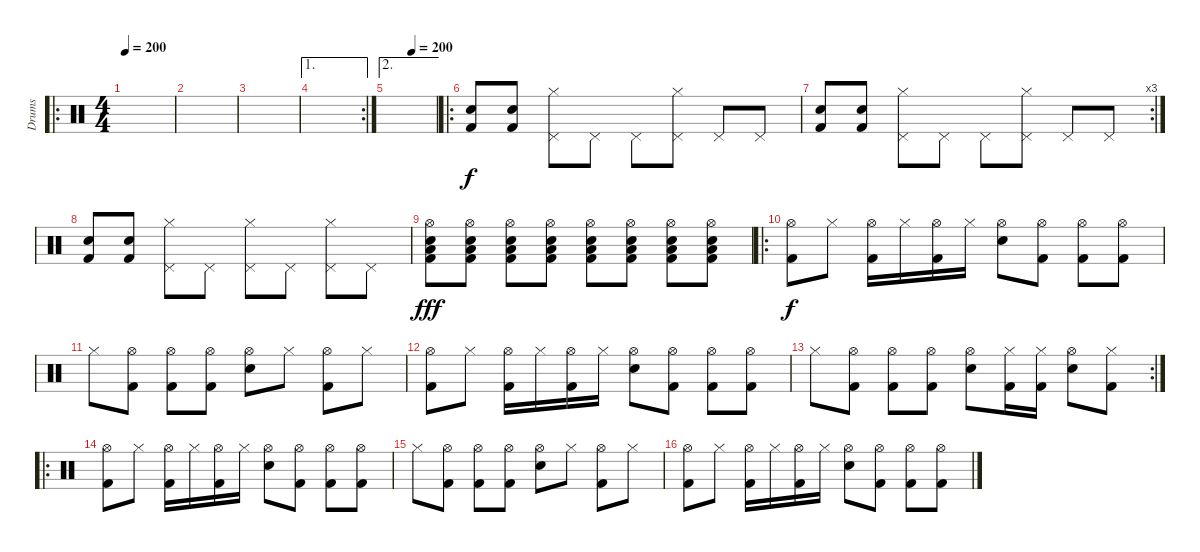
\track ("Drums" "Drums") {instrument percussion}
\staff {score}
\articulation defaults
\ro
\ts (4 4)
\tempo 200
\tempo 140
\tempo 200
\clef neutral
\ks c
|
|
|
\ae 1
\rc 2
|
\ae 2
\tempo (200 0.5)
|
\ro
("Electric Snare (hit)" "Kick (hit) 2").8 ("Electric Snare (hit)" "Kick (hit) 2").8 ("Hi-Hat (closed)" "Pedal Hi-Hat (hit)").8 "Pedal Hi-Hat (hit)".8 "Pedal Hi-Hat (hit)".8 ("Hi-Hat (closed)" "Pedal Hi-Hat (hit)").8 "Pedal Hi-Hat (hit)".8 "Pedal Hi-Hat (hit)".8 |
\rc 3
("Electric Snare (hit)" "Kick (hit) 2").8 ("Electric Snare (hit)" "Kick (hit) 2").8 ("Hi-Hat (closed)" "Pedal Hi-Hat (hit)").8 "Pedal Hi-Hat (hit)".8 "Pedal Hi-Hat (hit)".8 ("Hi-Hat (closed)" "Pedal Hi-Hat (hit)").8 "Pedal Hi-Hat (hit)".8 "Pedal Hi-Hat (hit)".8 |
("Electric Snare (hit)" "Kick (hit) 2").8 ("Electric Snare (hit)" "Kick (hit) 2").8 ("Hi-Hat (closed)" "Pedal Hi-Hat (hit)").8 "Pedal Hi-Hat (hit)".8 ("Hi-Hat (closed)" "Pedal Hi-Hat (hit)").8 "Pedal Hi-Hat (hit)".8 ("Hi-Hat (closed)" "Pedal Hi-Hat (hit)").8 "Pedal Hi-Hat (hit)".8 |
("Hi-Hat (open)" "Low Floor Tom (hit)" "Electric Snare (hit)" "Kick (hit) 2").8{dy fff} ("Hi-Hat (open)" "Low Floor Tom (hit)" "Electric Snare (hit)" "Kick (hit) 2").8 ("Hi-Hat (open)" "Low Floor Tom (hit)" "Electric Snare (hit)" "Kick (hit) 2").8 ("Hi-Hat (open)" "Low Floor Tom (hit)" "Electric Snare (hit)" "Kick (hit) 2").8 ("Hi-Hat (open)" "Low Floor Tom (hit)" "Electric Snare (hit)" "Kick (hit) 2").8 ("Hi-Hat (open)" "Low Floor Tom (hit)" "Electric Snare (hit)" "Kick (hit) 2").8 ("Hi-Hat (open)" "Low Floor Tom (hit)" "Electric Snare (hit)" "Kick (hit) 2").8 ("Hi-Hat (open)" "Low Floor Tom (hit)" "Electric Snare (hit)" "Kick (hit) 2").8 |
\ro
("Hi-Hat (open)" "Kick (hit) 2").8{dy f} "Hi-Hat (closed)".8 ("Hi-Hat (open)" "Kick (hit) 2").16 "Hi-Hat (closed)".16 ("Hi-Hat (open)" "Kick (hit) 2").16 "Hi-Hat (closed)".16 ("Hi-Hat (open)" "Electric Snare (hit)").8 ("Hi-Hat (open)" "Kick (hit) 2").8 ("Hi-Hat (open)" "Kick (hit) 2").8 ("Hi-Hat (open)" "Kick (hit) 2").8 |
"Hi-Hat (closed)".8 ("Hi-Hat (open)" "Kick (hit) 2").8 ("Hi-Hat (open)" "Kick (hit) 2").8 ("Hi-Hat (open)" "Kick (hit) 2").8 ("Hi-Hat (open)" "Electric Snare (hit)").8 "Hi-Hat (closed)".8 ("Hi-Hat (open)" "Kick (hit) 2").8 "Hi-Hat (closed)".8 |
("Hi-Hat (open)" "Kick (hit) 2").8 "Hi-Hat (closed)".8 ("Hi-Hat (open)" "Kick (hit) 2").16 "Hi-Hat (closed)".16 ("Hi-Hat (open)" "Kick (hit) 2").16 "Hi-Hat (closed)".16 ("Hi-Hat (open)" "Electric Snare (hit)").8 ("Hi-Hat (open)" "Kick (hit) 2").8 ("Hi-Hat (open)" "Kick (hit) 2").8 ("Hi-Hat (open)" "Kick (hit) 2").8 |
\rc 2 "Hi-Hat (closed)".8
("Hi-Hat (open)" "Kick (hit) 2").8 ("Hi-Hat (open)" "Kick (hit) 2").8 ("Hi-Hat (open)" "Kick (hit) 2").8 ("Hi-Hat (open)" "Electric Snare (hit)").8 ("Hi-Hat (closed)" "Kick (hit) 2").16 ("Hi-Hat (closed)" "Kick (hit) 2").16 ("Hi-Hat (open)" "Electric Snare (hit)").8 ("Hi-Hat (closed)" "Kick (hit) 2").8 |
\ro
("Hi-Hat (open)" "Kick (hit) 2").8 "Hi-Hat (closed)".8 ("Hi-Hat (open)" "Kick (hit) 2").16 "Hi-Hat (closed)".16 ("Hi-Hat (open)" "Kick (hit) 2").16 "Hi-Hat (closed)".16 ("Hi-Hat (open)" "Electric Snare (hit)").8 ("Hi-Hat (open)" "Kick (hit) 2").8 ("Hi-Hat (open)" "Kick (hit) 2").8 ("Hi-Hat (open)" "Kick (hit) 2").8 |
"Hi-Hat (closed)".8 ("Hi-Hat (open)" "Kick (hit) 2").8 ("Hi-Hat (open)" "Kick (hit) 2").8 ("Hi-Hat (open)" "Kick (hit) 2").8 ("Hi-Hat (open)" "Electric Snare (hit)").8 "Hi-Hat (closed)".8 ("Hi-Hat (open)" "Kick (hit) 2").8 "Hi-Hat (closed)".8 |
("Hi-Hat (open)" "Kick (hit) 2").8 "Hi-Hat (closed)".8 ("Hi-Hat (open)" "Kick (hit) 2").16 "Hi-Hat (closed)".16 ("Hi-Hat (open)" "Kick (hit) 2").16 "Hi-Hat (closed)".16 ("Hi-Hat (open)" "Electric Snare (hit)").8 ("Hi-Hat (open)" "Kick (hit) 2").8 ("Hi-Hat (open)" "Kick (hit) 2").8 ("Hi-Hat (open)" "Kick (hit) 2").8
